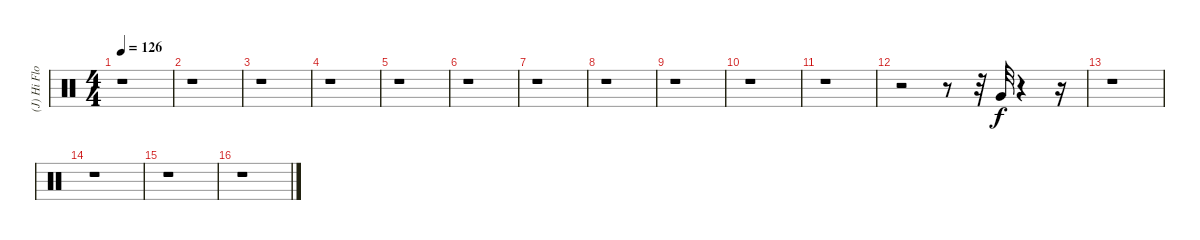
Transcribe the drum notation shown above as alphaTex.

\track ("(J) Hi Floor Tom" "(J) Hi Flo") {instrument percussion}
\staff {score}
\articulation defaults
\ts (4 4)
\tempo 126
\clef neutral
\ks c
r.1{dy f} |
r.1 |
r.1 |
r.1 |
r.1 |
r.1 |
r.1 |
r.1 |
r.1 |
r.1 |
r.1 |
r.2 r.8 r.32 "Very Low Tom (hit)".32 r.4 r.16 |
r.1 |
r.1 |
r.1 |
r.1
